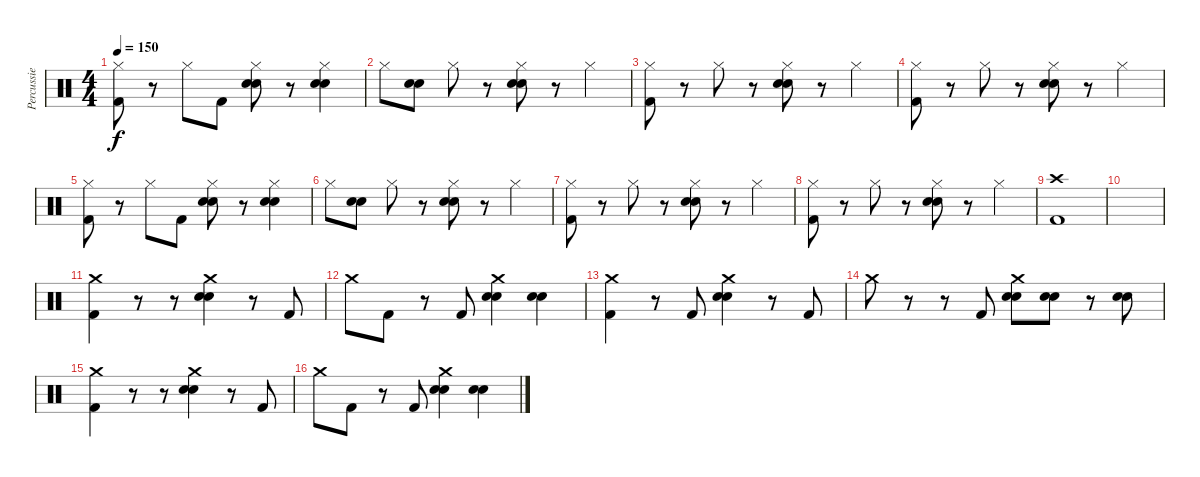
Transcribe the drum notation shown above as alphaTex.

\track ("Percussie" "Percussie") {instrument percussion}
\staff {score}
\articulation defaults
\ts (4 4)
\tempo 150
\clef neutral
\ks c
("Hi-Hat (closed)" "Kick (hit) 2").8{dy f} r.8 "Hi-Hat (closed)".8 "Kick (hit) 2".8 ("Hi-Hat (closed)" "Snare (hit) 2" "Electric Snare (hit)").8 r.8 ("Hi-Hat (closed)" "Snare (hit) 2" "Electric Snare (hit)").4 |
"Hi-Hat (closed)".8 ("Snare (hit) 2" "Electric Snare (hit)").8 "Hi-Hat (closed)".8 r.8 ("Hi-Hat (closed)" "Snare (hit) 2" "Electric Snare (hit)").8 r.8 "Hi-Hat (closed)".4 |
("Hi-Hat (closed)" "Kick (hit) 2").8 r.8 "Hi-Hat (closed)".8 r.8 ("Hi-Hat (closed)" "Snare (hit) 2" "Electric Snare (hit)").8 r.8 "Hi-Hat (closed)".4 |
("Hi-Hat (closed)" "Kick (hit) 2").8 r.8 "Hi-Hat (closed)".8 r.8 ("Hi-Hat (closed)" "Snare (hit) 2" "Electric Snare (hit)").8 r.8 "Hi-Hat (closed)".4 |
("Hi-Hat (closed)" "Kick (hit) 2").8 r.8 "Hi-Hat (closed)".8 "Kick (hit) 2".8 ("Hi-Hat (closed)" "Snare (hit) 2" "Electric Snare (hit)").8 r.8 ("Hi-Hat (closed)" "Snare (hit) 2" "Electric Snare (hit)").4 |
"Hi-Hat (closed)".8 ("Snare (hit) 2" "Electric Snare (hit)").8 "Hi-Hat (closed)".8 r.8 ("Hi-Hat (closed)" "Snare (hit) 2" "Electric Snare (hit)").8 r.8 "Hi-Hat (closed)".4 |
("Hi-Hat (closed)" "Kick (hit) 2").8 r.8 "Hi-Hat (closed)".8 r.8 ("Hi-Hat (closed)" "Snare (hit) 2" "Electric Snare (hit)").8 r.8 "Hi-Hat (closed)".4 |
("Hi-Hat (closed)" "Kick (hit) 2").8 r.8 "Hi-Hat (closed)".8 r.8 ("Hi-Hat (closed)" "Snare (hit) 2" "Electric Snare (hit)").8 r.8 "Hi-Hat (closed)".4 |
("Kick (hit) 2" "Crash high (hit)").1 |
|
("Crash medium (hit)" "Kick (hit) 2").4 r.8 r.8 ("Crash medium (hit)" "Electric Snare (hit)" "Snare (hit) 2").4 r.8 "Kick (hit) 2".8 |
"Crash medium (hit)".8 "Kick (hit) 2".8 r.8 "Kick (hit) 2".8 ("Crash medium (hit)" "Electric Snare (hit)" "Snare (hit) 2").4 ("Electric Snare (hit)" "Snare (hit) 2").4 |
("Crash medium (hit)" "Kick (hit) 2").4 r.8 "Kick (hit) 2".8 ("Crash medium (hit)" "Electric Snare (hit)" "Snare (hit) 2").4 r.8 "Kick (hit) 2".8 |
"Crash medium (hit)".8 r.8 r.8 "Kick (hit) 2".8 ("Crash medium (hit)" "Electric Snare (hit)" "Snare (hit) 2").8 ("Electric Snare (hit)" "Snare (hit) 2").8 r.8 ("Electric Snare (hit)" "Snare (hit) 2").8 |
("Crash medium (hit)" "Kick (hit) 2").4 r.8 r.8 ("Crash medium (hit)" "Electric Snare (hit)" "Snare (hit) 2").4 r.8 "Kick (hit) 2".8 |
"Crash medium (hit)".8 "Kick (hit) 2".8 r.8 "Kick (hit) 2".8 ("Crash medium (hit)" "Electric Snare (hit)" "Snare (hit) 2").4 ("Electric Snare (hit)" "Snare (hit) 2").4
